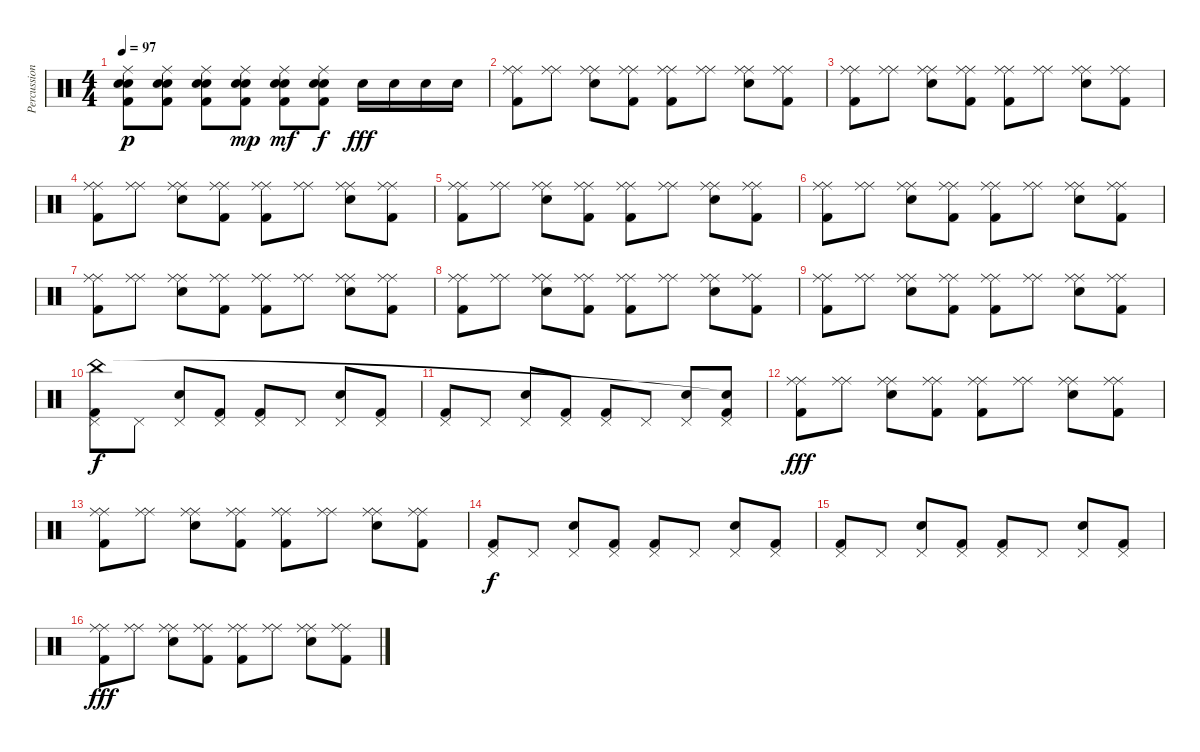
\track ("Percussions" "Percussion") {instrument percussion}
\staff {score}
\articulation defaults
\ts (4 4)
\tempo 97
\clef neutral
\ks c
("Ride (middle)" "Electric Snare (hit)" "Kick (hit) 2" "Snare (hit) 2").8{dy p} ("Ride (middle)" "Electric Snare (hit)" "Kick (hit) 2" "Snare (hit) 2").8 ("Ride (middle)" "Electric Snare (hit)" "Kick (hit) 2" "Snare (hit) 2").8 ("Ride (middle)" "Electric Snare (hit)" "Kick (hit) 2" "Snare (hit) 2").8{dy mp} ("Ride (middle)" "Electric Snare (hit)" "Kick (hit) 2" "Snare (hit) 2").8{dy mf} ("Ride (middle)" "Electric Snare (hit)" "Kick (hit) 2" "Snare (hit) 2").8{dy f} "Electric Snare (hit)".16{dy fff} "Snare (hit) 2".16 "Electric Snare (hit)".16 "Snare (hit) 2".16 |
("Ride (middle)" "Ride (middle)" "Kick (hit) 2").8 ("Ride (middle)" "Ride (middle)").8 ("Ride (middle)" "Ride (middle)" "Electric Snare (hit)").8 ("Ride (middle)" "Ride (middle)" "Kick (hit) 2").8 ("Ride (middle)" "Ride (middle)" "Kick (hit) 2").8 ("Ride (middle)" "Ride (middle)").8 ("Ride (middle)" "Ride (middle)" "Electric Snare (hit)").8 ("Ride (middle)" "Ride (middle)" "Kick (hit) 2").8 |
("Ride (middle)" "Ride (middle)" "Kick (hit) 2").8 ("Ride (middle)" "Ride (middle)").8 ("Ride (middle)" "Ride (middle)" "Electric Snare (hit)").8 ("Ride (middle)" "Ride (middle)" "Kick (hit) 2").8 ("Ride (middle)" "Ride (middle)" "Kick (hit) 2").8 ("Ride (middle)" "Ride (middle)").8 ("Ride (middle)" "Ride (middle)" "Electric Snare (hit)").8 ("Ride (middle)" "Ride (middle)" "Kick (hit) 2").8 |
("Ride (middle)" "Ride (middle)" "Kick (hit) 2").8 ("Ride (middle)" "Ride (middle)").8 ("Ride (middle)" "Ride (middle)" "Electric Snare (hit)").8 ("Ride (middle)" "Ride (middle)" "Kick (hit) 2").8 ("Ride (middle)" "Ride (middle)" "Kick (hit) 2").8 ("Ride (middle)" "Ride (middle)").8 ("Ride (middle)" "Ride (middle)" "Electric Snare (hit)").8 ("Ride (middle)" "Ride (middle)" "Kick (hit) 2").8 |
("Ride (middle)" "Ride (middle)" "Kick (hit) 2").8 ("Ride (middle)" "Ride (middle)").8 ("Ride (middle)" "Ride (middle)" "Electric Snare (hit)").8 ("Ride (middle)" "Ride (middle)" "Kick (hit) 2").8 ("Ride (middle)" "Ride (middle)" "Kick (hit) 2").8 ("Ride (middle)" "Ride (middle)").8 ("Ride (middle)" "Ride (middle)" "Electric Snare (hit)").8 ("Ride (middle)" "Ride (middle)" "Kick (hit) 2").8 |
("Ride (middle)" "Ride (middle)" "Kick (hit) 2").8 ("Ride (middle)" "Ride (middle)").8 ("Ride (middle)" "Ride (middle)" "Electric Snare (hit)").8 ("Ride (middle)" "Ride (middle)" "Kick (hit) 2").8 ("Ride (middle)" "Ride (middle)" "Kick (hit) 2").8 ("Ride (middle)" "Ride (middle)").8 ("Ride (middle)" "Ride (middle)" "Electric Snare (hit)").8 ("Ride (middle)" "Ride (middle)" "Kick (hit) 2").8 |
("Ride (middle)" "Ride (middle)" "Kick (hit) 2").8 ("Ride (middle)" "Ride (middle)").8 ("Ride (middle)" "Ride (middle)" "Electric Snare (hit)").8 ("Ride (middle)" "Ride (middle)" "Kick (hit) 2").8 ("Ride (middle)" "Ride (middle)" "Kick (hit) 2").8 ("Ride (middle)" "Ride (middle)").8 ("Ride (middle)" "Ride (middle)" "Electric Snare (hit)").8 ("Ride (middle)" "Ride (middle)" "Kick (hit) 2").8 |
("Ride (middle)" "Ride (middle)" "Kick (hit) 2").8 ("Ride (middle)" "Ride (middle)").8 ("Ride (middle)" "Ride (middle)" "Electric Snare (hit)").8 ("Ride (middle)" "Ride (middle)" "Kick (hit) 2").8 ("Ride (middle)" "Ride (middle)" "Kick (hit) 2").8 ("Ride (middle)" "Ride (middle)").8 ("Ride (middle)" "Ride (middle)" "Electric Snare (hit)").8 ("Ride (middle)" "Ride (middle)" "Kick (hit) 2").8 |
("Ride (middle)" "Ride (middle)" "Kick (hit) 2").8 ("Ride (middle)" "Ride (middle)").8 ("Ride (middle)" "Ride (middle)" "Electric Snare (hit)").8 ("Ride (middle)" "Ride (middle)" "Kick (hit) 2").8 ("Ride (middle)" "Ride (middle)" "Kick (hit) 2").8 ("Ride (middle)" "Ride (middle)").8 ("Ride (middle)" "Ride (middle)" "Electric Snare (hit)").8 ("Ride (middle)" "Ride (middle)" "Kick (hit) 2").8 |
("Pedal Hi-Hat (hit)" "Kick (hit) 2" "China (hit)").8{dy f} "Pedal Hi-Hat (hit)".8 ("Pedal Hi-Hat (hit)" "Electric Snare (hit)").8 ("Pedal Hi-Hat (hit)" "Kick (hit) 2").8 ("Pedal Hi-Hat (hit)" "Kick (hit) 2").8 "Pedal Hi-Hat (hit)".8 ("Pedal Hi-Hat (hit)" "Electric Snare (hit)").8 ("Pedal Hi-Hat (hit)" "Kick (hit) 2").8 |
("Pedal Hi-Hat (hit)" "Kick (hit) 2").8 "Pedal Hi-Hat (hit)".8 ("Pedal Hi-Hat (hit)" "Electric Snare (hit)").8 ("Pedal Hi-Hat (hit)" "Kick (hit) 2").8 ("Pedal Hi-Hat (hit)" "Kick (hit) 2").8 "Pedal Hi-Hat (hit)".8 ("Pedal Hi-Hat (hit)" "Electric Snare (hit)").8 ("Pedal Hi-Hat (hit)" "Kick (hit) 2" "Snare (hit)"{t}).8 |
("Ride (middle)" "Ride (middle)" "Kick (hit) 2").8{dy fff} ("Ride (middle)" "Ride (middle)").8 ("Ride (middle)" "Ride (middle)" "Electric Snare (hit)").8 ("Ride (middle)" "Ride (middle)" "Kick (hit) 2").8 ("Ride (middle)" "Ride (middle)" "Kick (hit) 2").8 ("Ride (middle)" "Ride (middle)").8 ("Ride (middle)" "Ride (middle)" "Electric Snare (hit)").8 ("Ride (middle)" "Ride (middle)" "Kick (hit) 2").8 |
("Ride (middle)" "Ride (middle)" "Kick (hit) 2").8 ("Ride (middle)" "Ride (middle)").8 ("Ride (middle)" "Ride (middle)" "Electric Snare (hit)").8 ("Ride (middle)" "Ride (middle)" "Kick (hit) 2").8 ("Ride (middle)" "Ride (middle)" "Kick (hit) 2").8 ("Ride (middle)" "Ride (middle)").8 ("Ride (middle)" "Ride (middle)" "Electric Snare (hit)").8 ("Ride (middle)" "Ride (middle)" "Kick (hit) 2").8 |
("Pedal Hi-Hat (hit)" "Kick (hit) 2").8{dy f} "Pedal Hi-Hat (hit)".8 ("Pedal Hi-Hat (hit)" "Electric Snare (hit)").8 ("Pedal Hi-Hat (hit)" "Kick (hit) 2").8 ("Pedal Hi-Hat (hit)" "Kick (hit) 2").8 "Pedal Hi-Hat (hit)".8 ("Pedal Hi-Hat (hit)" "Electric Snare (hit)").8 ("Pedal Hi-Hat (hit)" "Kick (hit) 2").8 |
("Pedal Hi-Hat (hit)" "Kick (hit) 2").8 "Pedal Hi-Hat (hit)".8 ("Pedal Hi-Hat (hit)" "Electric Snare (hit)").8 ("Pedal Hi-Hat (hit)" "Kick (hit) 2").8 ("Pedal Hi-Hat (hit)" "Kick (hit) 2").8 "Pedal Hi-Hat (hit)".8 ("Pedal Hi-Hat (hit)" "Electric Snare (hit)").8 ("Pedal Hi-Hat (hit)" "Kick (hit) 2").8 |
("Ride (middle)" "Ride (middle)" "Kick (hit) 2").8{dy fff} ("Ride (middle)" "Ride (middle)").8 ("Ride (middle)" "Ride (middle)" "Electric Snare (hit)").8 ("Ride (middle)" "Ride (middle)" "Kick (hit) 2").8 ("Ride (middle)" "Ride (middle)" "Kick (hit) 2").8 ("Ride (middle)" "Ride (middle)").8 ("Ride (middle)" "Ride (middle)" "Electric Snare (hit)").8 ("Ride (middle)" "Ride (middle)" "Kick (hit) 2").8
